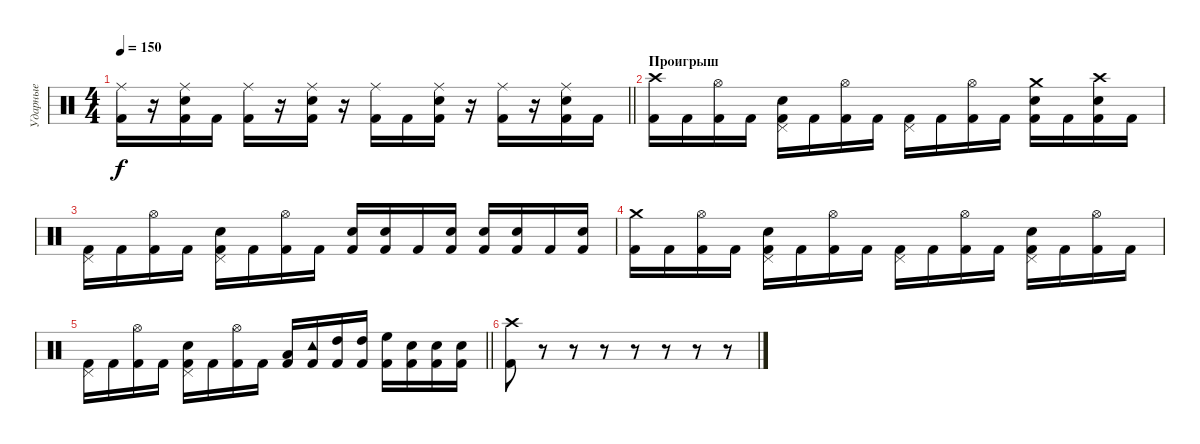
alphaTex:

\track ("Ударные" "Ударные") {instrument percussion}
\staff {score}
\articulation defaults
\ts (4 4)
\tempo 150
\clef neutral
\barLineRight lightlight
\ks c
("Ride (middle)" "Kick (hit) 2").16{dy f} r.16 ("Ride (middle)" "Snare (hit) 2" "Kick (hit) 2").16 "Kick (hit) 2".16 ("Ride (middle)" "Kick (hit) 2").16 r.16 ("Ride (middle)" "Snare (hit) 2" "Kick (hit) 2").16 r.16 ("Ride (middle)" "Kick (hit) 2").16 "Kick (hit) 2".16 ("Ride (middle)" "Snare (hit) 2" "Kick (hit) 2").16 r.16 ("Ride (middle)" "Kick (hit) 2").16 r.16 ("Ride (middle)" "Snare (hit) 2" "Kick (hit) 2").16 "Kick (hit) 2".16 |
\section ("" "Проигрыш")
("Crash high (hit)" "Kick (hit) 2").16 "Kick (hit) 2".16 ("Hi-Hat (open)" "Kick (hit) 2").16 "Kick (hit) 2".16 ("Pedal Hi-Hat (hit)" "Snare (hit) 2" "Kick (hit) 2").16 "Kick (hit) 2".16 ("Hi-Hat (open)" "Kick (hit) 2").16 "Kick (hit) 2".16 ("Pedal Hi-Hat (hit)" "Kick (hit) 2").16 "Kick (hit) 2".16 ("Hi-Hat (open)" "Kick (hit) 2").16 "Kick (hit) 2".16 ("Crash medium (hit)" "Snare (hit) 2" "Kick (hit) 2").16 "Kick (hit) 2".16 ("Crash high (hit)" "Snare (hit) 2" "Kick (hit) 2").16 "Kick (hit) 2".16 |
("Pedal Hi-Hat (hit)" "Kick (hit) 2").16 "Kick (hit) 2".16 ("Hi-Hat (open)" "Kick (hit) 2").16 "Kick (hit) 2".16 ("Pedal Hi-Hat (hit)" "Snare (hit) 2" "Kick (hit) 2").16 "Kick (hit) 2".16 ("Hi-Hat (open)" "Kick (hit) 2").16 "Kick (hit) 2".16 ("Snare (hit) 2" "Kick (hit) 2").16 ("Snare (hit) 2" "Kick (hit) 2").16 "Kick (hit) 2".16 ("Snare (hit) 2" "Kick (hit) 2").16 ("Snare (hit) 2" "Kick (hit) 2").16 ("Snare (hit) 2" "Kick (hit) 2").16 "Kick (hit) 2".16 ("Snare (hit) 2" "Kick (hit) 2").16 |
("Crash medium (hit)" "Kick (hit) 2").16 "Kick (hit) 2".16 ("Hi-Hat (open)" "Kick (hit) 2").16 "Kick (hit) 2".16 ("Pedal Hi-Hat (hit)" "Snare (hit) 2" "Kick (hit) 2").16 "Kick (hit) 2".16 ("Hi-Hat (open)" "Kick (hit) 2").16 "Kick (hit) 2".16 ("Pedal Hi-Hat (hit)" "Kick (hit) 2").16 "Kick (hit) 2".16 ("Hi-Hat (open)" "Kick (hit) 2").16 "Kick (hit) 2".16 ("Pedal Hi-Hat (hit)" "Snare (hit) 2" "Kick (hit) 2").16 "Kick (hit) 2".16 ("Hi-Hat (open)" "Kick (hit) 2").16 "Kick (hit) 2".16 |
\barLineRight lightlight
("Pedal Hi-Hat (hit)" "Kick (hit) 2").16 "Kick (hit) 2".16 ("Hi-Hat (open)" "Kick (hit) 2").16 "Kick (hit) 2".16 ("Pedal Hi-Hat (hit)" "Snare (hit) 2" "Kick (hit) 2").16 "Kick (hit) 2".16 ("Hi-Hat (open)" "Kick (hit) 2").16 "Kick (hit) 2".16 ("Low Tom (hit)" "Kick (hit) 2").16 ("Tambourine (hit)" "Kick (hit) 2").16 ("High Tom (hit)" "Kick (hit) 2").16 ("High Tom (hit)" "Kick (hit) 2").16 ("High Floor Tom (hit)" "Kick (hit) 2").16 ("Snare (hit) 2" "Kick (hit) 2").16 ("Snare (hit) 2" "Kick (hit) 2").16 ("Snare (hit) 2" "Kick (hit) 2").16 |
("Crash high (hit)" "Kick (hit) 2").8 r.8 r.8 r.8 r.8 r.8 r.8 r.8
